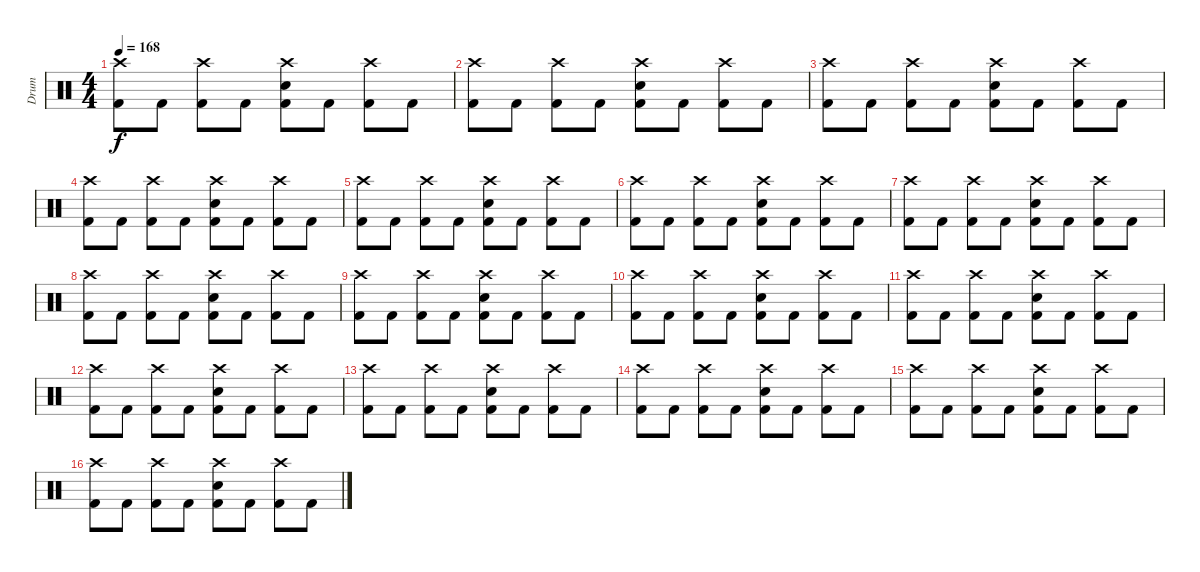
\track ("Drum" "Drum") {instrument percussion}
\staff {score}
\articulation defaults
\ts (4 4)
\tempo 168
\clef neutral
\ks c
("Crash high (hit)" "Kick (hit) 2").8{dy f} "Kick (hit) 2".8 ("Kick (hit) 2" "Crash high (hit)").8 "Kick (hit) 2".8 ("Crash high (hit)" "Kick (hit) 2" "Electric Snare (hit)").8 "Kick (hit) 2".8 ("Kick (hit) 2" "Crash high (hit)").8 "Kick (hit) 2".8 |
("Crash high (hit)" "Kick (hit) 2").8 "Kick (hit) 2".8 ("Kick (hit) 2" "Crash high (hit)").8 "Kick (hit) 2".8 ("Crash high (hit)" "Kick (hit) 2" "Electric Snare (hit)").8 "Kick (hit) 2".8 ("Kick (hit) 2" "Crash high (hit)").8 "Kick (hit) 2".8 |
("Crash high (hit)" "Kick (hit) 2").8 "Kick (hit) 2".8 ("Kick (hit) 2" "Crash high (hit)").8 "Kick (hit) 2".8 ("Crash high (hit)" "Kick (hit) 2" "Electric Snare (hit)").8 "Kick (hit) 2".8 ("Kick (hit) 2" "Crash high (hit)").8 "Kick (hit) 2".8 |
("Crash high (hit)" "Kick (hit) 2").8 "Kick (hit) 2".8 ("Kick (hit) 2" "Crash high (hit)").8 "Kick (hit) 2".8 ("Crash high (hit)" "Kick (hit) 2" "Electric Snare (hit)").8 "Kick (hit) 2".8 ("Kick (hit) 2" "Crash high (hit)").8 "Kick (hit) 2".8 |
("Crash high (hit)" "Kick (hit) 2").8 "Kick (hit) 2".8 ("Kick (hit) 2" "Crash high (hit)").8 "Kick (hit) 2".8 ("Crash high (hit)" "Kick (hit) 2" "Electric Snare (hit)").8 "Kick (hit) 2".8 ("Kick (hit) 2" "Crash high (hit)").8 "Kick (hit) 2".8 |
("Crash high (hit)" "Kick (hit) 2").8 "Kick (hit) 2".8 ("Kick (hit) 2" "Crash high (hit)").8 "Kick (hit) 2".8 ("Crash high (hit)" "Kick (hit) 2" "Electric Snare (hit)").8 "Kick (hit) 2".8 ("Kick (hit) 2" "Crash high (hit)").8 "Kick (hit) 2".8 |
("Crash high (hit)" "Kick (hit) 2").8 "Kick (hit) 2".8 ("Kick (hit) 2" "Crash high (hit)").8 "Kick (hit) 2".8 ("Crash high (hit)" "Kick (hit) 2" "Electric Snare (hit)").8 "Kick (hit) 2".8 ("Kick (hit) 2" "Crash high (hit)").8 "Kick (hit) 2".8 |
("Crash high (hit)" "Kick (hit) 2").8 "Kick (hit) 2".8 ("Kick (hit) 2" "Crash high (hit)").8 "Kick (hit) 2".8 ("Crash high (hit)" "Kick (hit) 2" "Electric Snare (hit)").8 "Kick (hit) 2".8 ("Kick (hit) 2" "Crash high (hit)").8 "Kick (hit) 2".8 |
("Crash high (hit)" "Kick (hit) 2").8 "Kick (hit) 2".8 ("Kick (hit) 2" "Crash high (hit)").8 "Kick (hit) 2".8 ("Crash high (hit)" "Kick (hit) 2" "Electric Snare (hit)").8 "Kick (hit) 2".8 ("Kick (hit) 2" "Crash high (hit)").8 "Kick (hit) 2".8 |
("Crash high (hit)" "Kick (hit) 2").8 "Kick (hit) 2".8 ("Kick (hit) 2" "Crash high (hit)").8 "Kick (hit) 2".8 ("Crash high (hit)" "Kick (hit) 2" "Electric Snare (hit)").8 "Kick (hit) 2".8 ("Kick (hit) 2" "Crash high (hit)").8 "Kick (hit) 2".8 |
("Crash high (hit)" "Kick (hit) 2").8 "Kick (hit) 2".8 ("Kick (hit) 2" "Crash high (hit)").8 "Kick (hit) 2".8 ("Crash high (hit)" "Kick (hit) 2" "Electric Snare (hit)").8 "Kick (hit) 2".8 ("Kick (hit) 2" "Crash high (hit)").8 "Kick (hit) 2".8 |
("Crash high (hit)" "Kick (hit) 2").8 "Kick (hit) 2".8 ("Kick (hit) 2" "Crash high (hit)").8 "Kick (hit) 2".8 ("Crash high (hit)" "Kick (hit) 2" "Electric Snare (hit)").8 "Kick (hit) 2".8 ("Kick (hit) 2" "Crash high (hit)").8 "Kick (hit) 2".8 |
("Crash high (hit)" "Kick (hit) 2").8 "Kick (hit) 2".8 ("Kick (hit) 2" "Crash high (hit)").8 "Kick (hit) 2".8 ("Crash high (hit)" "Kick (hit) 2" "Electric Snare (hit)").8 "Kick (hit) 2".8 ("Kick (hit) 2" "Crash high (hit)").8 "Kick (hit) 2".8 |
("Crash high (hit)" "Kick (hit) 2").8 "Kick (hit) 2".8 ("Kick (hit) 2" "Crash high (hit)").8 "Kick (hit) 2".8 ("Crash high (hit)" "Kick (hit) 2" "Electric Snare (hit)").8 "Kick (hit) 2".8 ("Kick (hit) 2" "Crash high (hit)").8 "Kick (hit) 2".8 |
("Crash high (hit)" "Kick (hit) 2").8 "Kick (hit) 2".8 ("Kick (hit) 2" "Crash high (hit)").8 "Kick (hit) 2".8 ("Crash high (hit)" "Kick (hit) 2" "Electric Snare (hit)").8 "Kick (hit) 2".8 ("Kick (hit) 2" "Crash high (hit)").8 "Kick (hit) 2".8 |
("Crash high (hit)" "Kick (hit) 2").8 "Kick (hit) 2".8 ("Kick (hit) 2" "Crash high (hit)").8 "Kick (hit) 2".8 ("Crash high (hit)" "Kick (hit) 2" "Electric Snare (hit)").8 "Kick (hit) 2".8 ("Kick (hit) 2" "Crash high (hit)").8 "Kick (hit) 2".8
